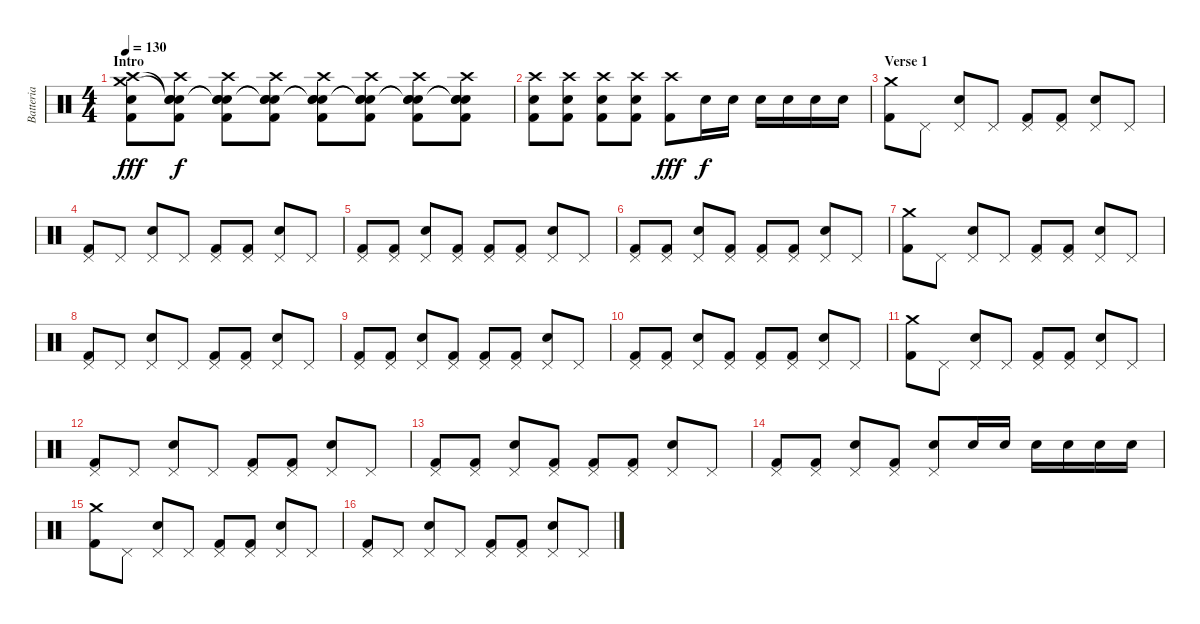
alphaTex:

\track ("Batteria" "Batteria") {instrument percussion}
\staff {score}
\articulation defaults
\ts (4 4)
\section ("" "Intro")
\tempo 130
\clef neutral
\ks c
("Crash medium (hit)" "Crash high (hit)" "Electric Snare (hit)" "Kick (hit) 2").8{dy fff} ("Snare (hit)"{t} "Snare (hit)"{t} "Crash high (hit)" "Electric Snare (hit)" "Kick (hit) 2").8{dy f} ("Snare (hit)"{t} "Snare (hit)"{t} "Crash high (hit)" "Electric Snare (hit)" "Kick (hit) 2").8 ("Snare (hit)"{t} "Snare (hit)"{t} "Crash high (hit)" "Electric Snare (hit)" "Kick (hit) 2").8 ("Snare (hit)"{t} "Snare (hit)"{t} "Crash high (hit)" "Electric Snare (hit)" "Kick (hit) 2").8 ("Snare (hit)"{t} "Snare (hit)"{t} "Crash high (hit)" "Electric Snare (hit)" "Kick (hit) 2").8 ("Snare (hit)"{t} "Snare (hit)"{t} "Crash high (hit)" "Electric Snare (hit)" "Kick (hit) 2").8 ("Snare (hit)"{t} "Snare (hit)"{t} "Crash high (hit)" "Electric Snare (hit)" "Kick (hit) 2").8 |
("Crash high (hit)" "Electric Snare (hit)" "Kick (hit) 2").8 ("Crash high (hit)" "Electric Snare (hit)" "Kick (hit) 2").8 ("Crash high (hit)" "Electric Snare (hit)" "Kick (hit) 2").8 ("Crash high (hit)" "Electric Snare (hit)" "Kick (hit) 2").8 ("Crash high (hit)" "Kick (hit) 2").8{dy fff} "Electric Snare (hit)".16{dy f} "Electric Snare (hit)".16 "Electric Snare (hit)".16 "Electric Snare (hit)".16 "Electric Snare (hit)".16 "Electric Snare (hit)".16 |
\section ("" "Verse 1")
("Crash medium (hit)" "Kick (hit) 2").8 "Pedal Hi-Hat (hit)".8 ("Pedal Hi-Hat (hit)" "Electric Snare (hit)").8 "Pedal Hi-Hat (hit)".8 ("Pedal Hi-Hat (hit)" "Kick (hit) 2").8 ("Pedal Hi-Hat (hit)" "Kick (hit) 2").8 ("Pedal Hi-Hat (hit)" "Electric Snare (hit)").8 "Pedal Hi-Hat (hit)".8 |
("Pedal Hi-Hat (hit)" "Kick (hit) 2").8 "Pedal Hi-Hat (hit)".8 ("Pedal Hi-Hat (hit)" "Electric Snare (hit)").8 "Pedal Hi-Hat (hit)".8 ("Pedal Hi-Hat (hit)" "Kick (hit) 2").8 ("Pedal Hi-Hat (hit)" "Kick (hit) 2").8 ("Pedal Hi-Hat (hit)" "Electric Snare (hit)").8 "Pedal Hi-Hat (hit)".8 |
("Pedal Hi-Hat (hit)" "Kick (hit) 2").8 ("Pedal Hi-Hat (hit)" "Kick (hit) 2").8 ("Pedal Hi-Hat (hit)" "Electric Snare (hit)").8 ("Pedal Hi-Hat (hit)" "Kick (hit) 2").8 ("Pedal Hi-Hat (hit)" "Kick (hit) 2").8 ("Pedal Hi-Hat (hit)" "Kick (hit) 2").8 ("Pedal Hi-Hat (hit)" "Electric Snare (hit)").8 "Pedal Hi-Hat (hit)".8 |
("Pedal Hi-Hat (hit)" "Kick (hit) 2").8 ("Pedal Hi-Hat (hit)" "Kick (hit) 2").8 ("Pedal Hi-Hat (hit)" "Electric Snare (hit)").8 ("Pedal Hi-Hat (hit)" "Kick (hit) 2").8 ("Pedal Hi-Hat (hit)" "Kick (hit) 2").8 ("Pedal Hi-Hat (hit)" "Kick (hit) 2").8 ("Pedal Hi-Hat (hit)" "Electric Snare (hit)").8 "Pedal Hi-Hat (hit)".8 |
("Crash medium (hit)" "Kick (hit) 2").8 "Pedal Hi-Hat (hit)".8 ("Pedal Hi-Hat (hit)" "Electric Snare (hit)").8 "Pedal Hi-Hat (hit)".8 ("Pedal Hi-Hat (hit)" "Kick (hit) 2").8 ("Pedal Hi-Hat (hit)" "Kick (hit) 2").8 ("Pedal Hi-Hat (hit)" "Electric Snare (hit)").8 "Pedal Hi-Hat (hit)".8 |
("Pedal Hi-Hat (hit)" "Kick (hit) 2").8 "Pedal Hi-Hat (hit)".8 ("Pedal Hi-Hat (hit)" "Electric Snare (hit)").8 "Pedal Hi-Hat (hit)".8 ("Pedal Hi-Hat (hit)" "Kick (hit) 2").8 ("Pedal Hi-Hat (hit)" "Kick (hit) 2").8 ("Pedal Hi-Hat (hit)" "Electric Snare (hit)").8 "Pedal Hi-Hat (hit)".8 |
("Pedal Hi-Hat (hit)" "Kick (hit) 2").8 ("Pedal Hi-Hat (hit)" "Kick (hit) 2").8 ("Pedal Hi-Hat (hit)" "Electric Snare (hit)").8 ("Pedal Hi-Hat (hit)" "Kick (hit) 2").8 ("Pedal Hi-Hat (hit)" "Kick (hit) 2").8 ("Pedal Hi-Hat (hit)" "Kick (hit) 2").8 ("Pedal Hi-Hat (hit)" "Electric Snare (hit)").8 "Pedal Hi-Hat (hit)".8 |
("Pedal Hi-Hat (hit)" "Kick (hit) 2").8 ("Pedal Hi-Hat (hit)" "Kick (hit) 2").8 ("Pedal Hi-Hat (hit)" "Electric Snare (hit)").8 ("Pedal Hi-Hat (hit)" "Kick (hit) 2").8 ("Pedal Hi-Hat (hit)" "Kick (hit) 2").8 ("Pedal Hi-Hat (hit)" "Kick (hit) 2").8 ("Pedal Hi-Hat (hit)" "Electric Snare (hit)").8 "Pedal Hi-Hat (hit)".8 |
("Crash medium (hit)" "Kick (hit) 2").8 "Pedal Hi-Hat (hit)".8 ("Pedal Hi-Hat (hit)" "Electric Snare (hit)").8 "Pedal Hi-Hat (hit)".8 ("Pedal Hi-Hat (hit)" "Kick (hit) 2").8 ("Pedal Hi-Hat (hit)" "Kick (hit) 2").8 ("Pedal Hi-Hat (hit)" "Electric Snare (hit)").8 "Pedal Hi-Hat (hit)".8 |
("Pedal Hi-Hat (hit)" "Kick (hit) 2").8 "Pedal Hi-Hat (hit)".8 ("Pedal Hi-Hat (hit)" "Electric Snare (hit)").8 "Pedal Hi-Hat (hit)".8 ("Pedal Hi-Hat (hit)" "Kick (hit) 2").8 ("Pedal Hi-Hat (hit)" "Kick (hit) 2").8 ("Pedal Hi-Hat (hit)" "Electric Snare (hit)").8 "Pedal Hi-Hat (hit)".8 |
("Pedal Hi-Hat (hit)" "Kick (hit) 2").8 ("Pedal Hi-Hat (hit)" "Kick (hit) 2").8 ("Pedal Hi-Hat (hit)" "Electric Snare (hit)").8 ("Pedal Hi-Hat (hit)" "Kick (hit) 2").8 ("Pedal Hi-Hat (hit)" "Kick (hit) 2").8 ("Pedal Hi-Hat (hit)" "Kick (hit) 2").8 ("Pedal Hi-Hat (hit)" "Electric Snare (hit)").8 "Pedal Hi-Hat (hit)".8 |
("Pedal Hi-Hat (hit)" "Kick (hit) 2").8 ("Pedal Hi-Hat (hit)" "Kick (hit) 2").8 ("Pedal Hi-Hat (hit)" "Electric Snare (hit)").8 ("Pedal Hi-Hat (hit)" "Kick (hit) 2").8 ("Pedal Hi-Hat (hit)" "Electric Snare (hit)").8 "Electric Snare (hit)".16 "Electric Snare (hit)".16 "Electric Snare (hit)".16 "Electric Snare (hit)".16 "Electric Snare (hit)".16 "Electric Snare (hit)".16 |
("Crash medium (hit)" "Kick (hit) 2").8 "Pedal Hi-Hat (hit)".8 ("Pedal Hi-Hat (hit)" "Electric Snare (hit)").8 "Pedal Hi-Hat (hit)".8 ("Pedal Hi-Hat (hit)" "Kick (hit) 2").8 ("Pedal Hi-Hat (hit)" "Kick (hit) 2").8 ("Pedal Hi-Hat (hit)" "Electric Snare (hit)").8 "Pedal Hi-Hat (hit)".8 |
("Pedal Hi-Hat (hit)" "Kick (hit) 2").8 "Pedal Hi-Hat (hit)".8 ("Pedal Hi-Hat (hit)" "Electric Snare (hit)").8 "Pedal Hi-Hat (hit)".8 ("Pedal Hi-Hat (hit)" "Kick (hit) 2").8 ("Pedal Hi-Hat (hit)" "Kick (hit) 2").8 ("Pedal Hi-Hat (hit)" "Electric Snare (hit)").8 "Pedal Hi-Hat (hit)".8
